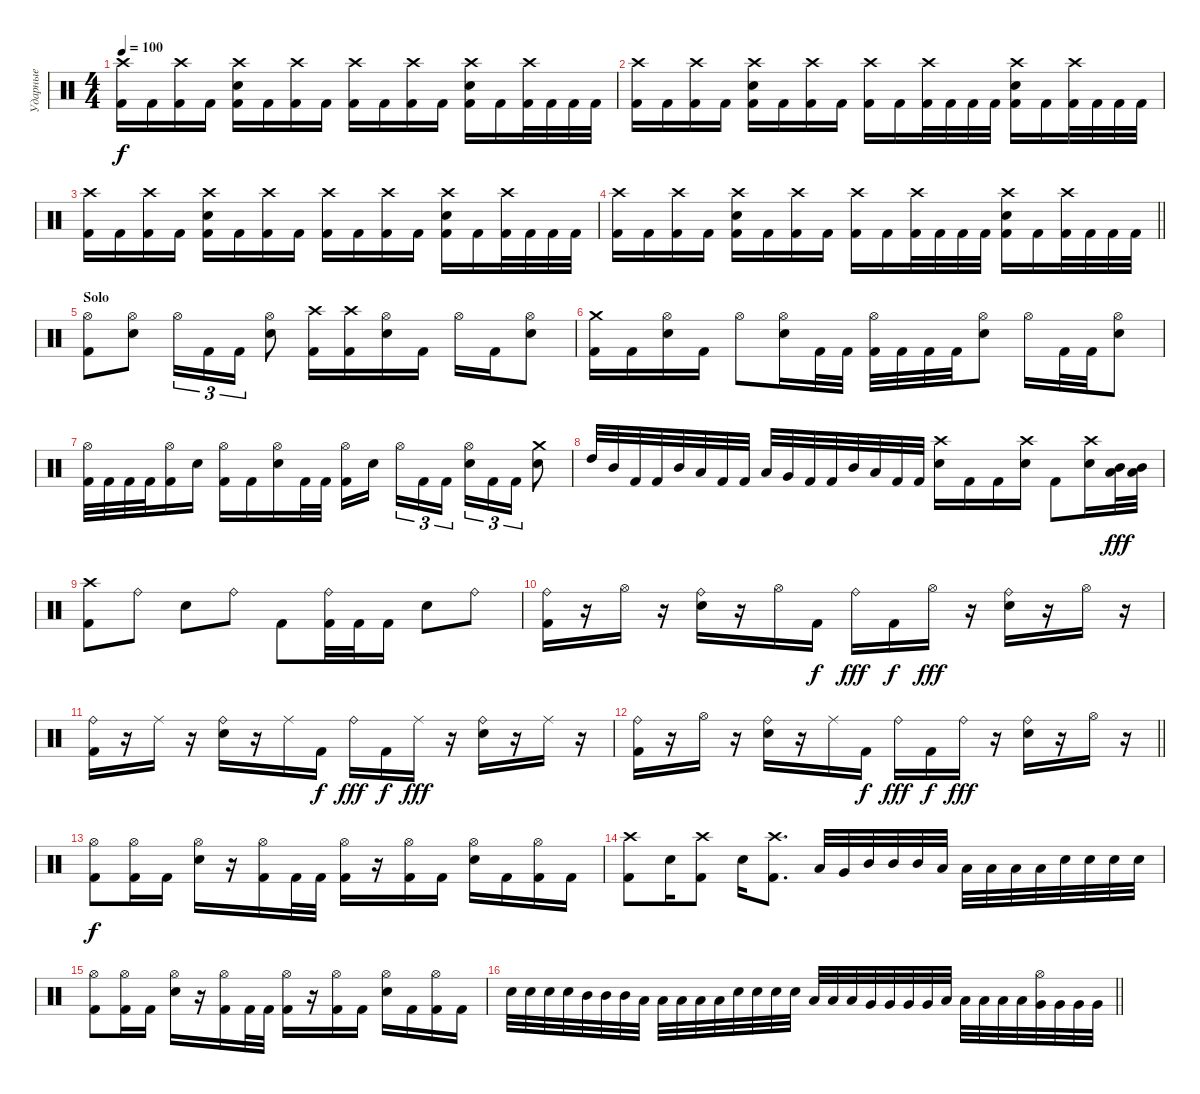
\track ("Ударные" "Ударные") {instrument percussion}
\staff {score}
\articulation defaults
\ts (4 4)
\tempo 100
\clef neutral
\ks c
("Crash high (hit)" "Kick (hit) 2").16{dy f} "Kick (hit) 2".16 ("Crash high (hit)" "Kick (hit) 2").16 "Kick (hit) 2".16 ("Crash high (hit)" "Electric Snare (hit)" "Kick (hit) 2").16 "Kick (hit) 2".16 ("Crash high (hit)" "Kick (hit) 2").16 "Kick (hit) 2".16 ("Crash high (hit)" "Kick (hit) 2").16 "Kick (hit) 2".16 ("Crash high (hit)" "Kick (hit) 2").16 "Kick (hit) 2".16 ("Crash high (hit)" "Electric Snare (hit)" "Kick (hit) 2").16 "Kick (hit) 2".16 ("Crash high (hit)" "Kick (hit) 2").32 "Kick (hit) 2".32 "Kick (hit) 2".32 "Kick (hit) 2".32 |
("Crash high (hit)" "Kick (hit) 2").16 "Kick (hit) 2".16 ("Crash high (hit)" "Kick (hit) 2").16 "Kick (hit) 2".16 ("Crash high (hit)" "Electric Snare (hit)" "Kick (hit) 2").16 "Kick (hit) 2".16 ("Crash high (hit)" "Kick (hit) 2").16 "Kick (hit) 2".16 ("Crash high (hit)" "Kick (hit) 2").16 "Kick (hit) 2".16 ("Crash high (hit)" "Kick (hit) 2").32 "Kick (hit) 2".32 "Kick (hit) 2".32 "Kick (hit) 2".32 ("Crash high (hit)" "Electric Snare (hit)" "Kick (hit) 2").16 "Kick (hit) 2".16 ("Crash high (hit)" "Kick (hit) 2").32 "Kick (hit) 2".32 "Kick (hit) 2".32 "Kick (hit) 2".32 |
("Crash high (hit)" "Kick (hit) 2").16 "Kick (hit) 2".16 ("Crash high (hit)" "Kick (hit) 2").16 "Kick (hit) 2".16 ("Crash high (hit)" "Electric Snare (hit)" "Kick (hit) 2").16 "Kick (hit) 2".16 ("Crash high (hit)" "Kick (hit) 2").16 "Kick (hit) 2".16 ("Crash high (hit)" "Kick (hit) 2").16 "Kick (hit) 2".16 ("Crash high (hit)" "Kick (hit) 2").16 "Kick (hit) 2".16 ("Crash high (hit)" "Electric Snare (hit)" "Kick (hit) 2").16 "Kick (hit) 2".16 ("Crash high (hit)" "Kick (hit) 2").32 "Kick (hit) 2".32 "Kick (hit) 2".32 "Kick (hit) 2".32 |
\barLineRight lightlight
("Crash high (hit)" "Kick (hit) 2").16 "Kick (hit) 2".16 ("Crash high (hit)" "Kick (hit) 2").16 "Kick (hit) 2".16 ("Crash high (hit)" "Electric Snare (hit)" "Kick (hit) 2").16 "Kick (hit) 2".16 ("Crash high (hit)" "Kick (hit) 2").16 "Kick (hit) 2".16 ("Crash high (hit)" "Kick (hit) 2").16 "Kick (hit) 2".16 ("Crash high (hit)" "Kick (hit) 2").32 "Kick (hit) 2".32 "Kick (hit) 2".32 "Kick (hit) 2".32 ("Crash high (hit)" "Electric Snare (hit)" "Kick (hit) 2").16 "Kick (hit) 2".16 ("Crash high (hit)" "Kick (hit) 2").32 "Kick (hit) 2".32 "Kick (hit) 2".32 "Kick (hit) 2".32 |
\section ("" "Solo")
("Hi-Hat (open)" "Kick (hit) 2").8 ("Hi-Hat (open)" "Electric Snare (hit)").8 "Hi-Hat (open)".16{tu (3 2)} "Kick (hit) 2".16{tu (3 2)} "Kick (hit) 2".16{tu (3 2)} ("Hi-Hat (open)" "Electric Snare (hit)").8 ("Crash high (hit)" "Kick (hit) 2").16 ("Crash high (hit)" "Kick (hit) 2").16 ("Hi-Hat (open)" "Electric Snare (hit)").16 "Kick (hit) 2".16 "Hi-Hat (open)".16 "Kick (hit) 2".16 ("Hi-Hat (open)" "Electric Snare (hit)").8 |
("Crash medium (hit)" "Kick (hit) 2").16 "Kick (hit) 2".16 ("Hi-Hat (open)" "Electric Snare (hit)").16 "Kick (hit) 2".16 "Hi-Hat (open)".8 ("Hi-Hat (open)" "Electric Snare (hit)").16 "Kick (hit) 2".32 "Kick (hit) 2".32 ("Hi-Hat (open)" "Kick (hit) 2").32 "Kick (hit) 2".32 "Kick (hit) 2".32 "Kick (hit) 2".32 ("Hi-Hat (open)" "Electric Snare (hit)").8 "Hi-Hat (open)".16 "Kick (hit) 2".32 "Kick (hit) 2".32 ("Hi-Hat (open)" "Electric Snare (hit)").8 |
("Hi-Hat (open)" "Kick (hit) 2").32 "Kick (hit) 2".32 "Kick (hit) 2".32 "Kick (hit) 2".32 ("Hi-Hat (open)" "Kick (hit) 2").16 "Electric Snare (hit)".16 ("Hi-Hat (open)" "Kick (hit) 2").16 "Kick (hit) 2".16 ("Hi-Hat (open)" "Electric Snare (hit)").16 "Kick (hit) 2".32 "Kick (hit) 2".32 ("Hi-Hat (open)" "Kick (hit) 2").16 "Electric Snare (hit)".16{beam splitsecondary} "Hi-Hat (open)".16{tu (3 2)} "Kick (hit) 2".16{tu (3 2)} "Kick (hit) 2".16{tu (3 2)} ("Hi-Hat (open)" "Electric Snare (hit)").16{tu (3 2)} "Kick (hit) 2".16{tu (3 2)} "Kick (hit) 2".16{tu (3 2)} ("Crash medium (hit)" "Electric Snare (hit)").8 |
"High Tom (hit)".32 "Mid Tom (hit)".32 "Kick (hit) 2".32 "Kick (hit) 2".32 "Mid Tom (hit)".32 "Low Tom (hit)".32 "Kick (hit) 2".32 "Kick (hit) 2".32 "Low Tom (hit)".32 "Very Low Tom (hit)".32 "Kick (hit) 2".32 "Kick (hit) 2".32 "Mid Tom (hit)".32 "Low Tom (hit)".32 "Kick (hit) 2".32 "Kick (hit) 2".32 ("Crash high (hit)" "Electric Snare (hit)").16 "Kick (hit) 2".16 "Kick (hit) 2".16 ("Crash high (hit)" "Electric Snare (hit)").16 "Kick (hit) 2".8 ("Crash high (hit)" "Electric Snare (hit)").16 ("Mid Tom (hit)" "Low Tom (hit)").32{dy fff} ("Mid Tom (hit)" "Low Tom (hit)").32 |
("Crash high (hit)" "Kick (hit) 2").8 "Ride (bell)".8 "Electric Snare (hit)".8 "Ride (bell)".8 "Kick (hit) 2".8 ("Ride (bell)" "Kick (hit) 2").32 "Kick (hit) 2".32 "Kick (hit) 2".16 "Electric Snare (hit)".8 "Ride (bell)".8 |
("Ride (bell)" "Kick (hit) 2").16 r.16 "Hi-Hat (open)".16 r.16 ("Ride (bell)" "Electric Snare (hit)").16 r.16 "Hi-Hat (open)".16 "Kick (hit) 2".16{dy f} "Ride (bell)".16{dy fff} "Kick (hit) 2".16{dy f} "Hi-Hat (open)".16{dy fff} r.16 ("Ride (bell)" "Electric Snare (hit)").16 r.16 "Hi-Hat (open)".16 r.16 |
("Ride (bell)" "Kick (hit) 2").16 r.16 "Ride (middle)".16 r.16 ("Ride (bell)" "Electric Snare (hit)").16 r.16 "Ride (middle)".16 "Kick (hit) 2".16{dy f} "Ride (bell)".16{dy fff} "Kick (hit) 2".16{dy f} "Ride (middle)".16{dy fff} r.16 ("Ride (bell)" "Electric Snare (hit)").16 r.16 "Ride (middle)".16 r.16 |
\barLineRight lightlight
("Ride (bell)" "Kick (hit) 2").16 r.16 "Hi-Hat (open)".16 r.16 ("Ride (bell)" "Electric Snare (hit)").16 r.16 "Ride (middle)".16 "Kick (hit) 2".16{dy f} "Ride (bell)".16{dy fff} "Kick (hit) 2".16{dy f} "Ride (bell)".16{dy fff} r.16 ("Ride (bell)" "Electric Snare (hit)").16 r.16 "Hi-Hat (open)".16 r.16 |
\section ("" "")
("Hi-Hat (open)" "Kick (hit) 2").8{dy f} ("Hi-Hat (open)" "Kick (hit) 2").16 "Kick (hit) 2".16 ("Hi-Hat (open)" "Electric Snare (hit)").16 r.16 ("Hi-Hat (open)" "Kick (hit) 2").16 "Kick (hit) 2".32 "Kick (hit) 2".32 ("Hi-Hat (open)" "Kick (hit) 2").16 r.16 ("Hi-Hat (open)" "Kick (hit) 2").16 "Kick (hit) 2".16 ("Hi-Hat (open)" "Electric Snare (hit)").16 "Kick (hit) 2".16 ("Hi-Hat (open)" "Kick (hit) 2").16 "Kick (hit) 2".16 |
("Crash high (hit)" "Kick (hit) 2").8 "Electric Snare (hit)".16 ("Crash high (hit)" "Kick (hit) 2").8 "Electric Snare (hit)".16 ("Crash high (hit)" "Kick (hit) 2").8{d} "Low Tom (hit)".32 "Very Low Tom (hit)".32 "Mid Tom (hit)".32 "Mid Tom (hit)".32 "Mid Tom (hit)".32 "Low Tom (hit)".32 "Low Tom (hit)".32 "Low Tom (hit)".32 "Low Tom (hit)".32 "Low Tom (hit)".32 "Electric Snare (hit)".32 "Electric Snare (hit)".32 "Electric Snare (hit)".32 "Electric Snare (hit)".32 |
("Hi-Hat (open)" "Kick (hit) 2").8 ("Hi-Hat (open)" "Kick (hit) 2").16 "Kick (hit) 2".16 ("Hi-Hat (open)" "Electric Snare (hit)").16 r.16 ("Hi-Hat (open)" "Kick (hit) 2").16 "Kick (hit) 2".32 "Kick (hit) 2".32 ("Hi-Hat (open)" "Kick (hit) 2").16 r.16 ("Hi-Hat (open)" "Kick (hit) 2").16 "Kick (hit) 2".16 ("Hi-Hat (open)" "Electric Snare (hit)").16 "Kick (hit) 2".16 ("Hi-Hat (open)" "Kick (hit) 2").16 "Kick (hit) 2".16 |
\barLineRight lightlight "Electric Snare (hit)".32 "Electric Snare (hit)".32 "Electric Snare (hit)".32 "Electric Snare (hit)".32 "Mid Tom (hit)".32 "Mid Tom (hit)".32 "Mid Tom (hit)".32 "Low Tom (hit)".32 "Low Tom (hit)".32 "Low Tom (hit)".32 "Low Tom (hit)".32 "Low Tom (hit)".32 "Electric Snare (hit)".32 "Electric Snare (hit)".32 "Electric Snare (hit)".32 "Electric Snare (hit)".32 "Low Tom (hit)".32 "Low Tom (hit)".32 "Low Tom (hit)".32 "Very Low Tom (hit)".32 "Very Low Tom (hit)".32 "Very Low Tom (hit)".32 "Very Low Tom (hit)".32 "Low Floor Tom (hit)".32 "Low Floor Tom (hit)".32 "Low Floor Tom (hit)".32 "Low Floor Tom (hit)".32 "Low Floor Tom (hit)".32
("Hi-Hat (open)" "Very Low Tom (hit)").32 "Very Low Tom (hit)".32 "Very Low Tom (hit)".32 "Very Low Tom (hit)".32
